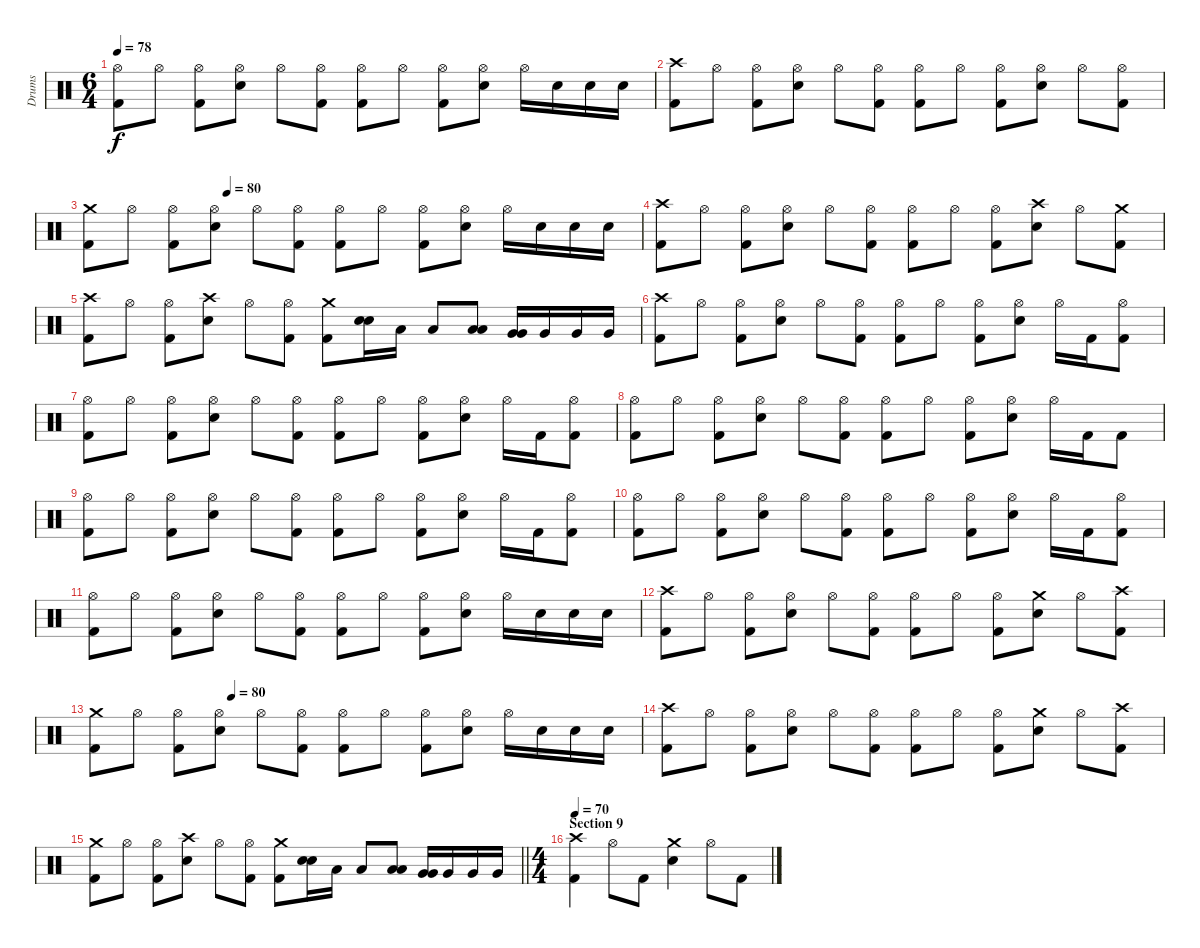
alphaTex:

\track ("Drums" "Drums") {instrument percussion}
\staff {score}
\articulation defaults
\ts (6 4)
\tempo 78
\clef neutral
\ks c
("Hi-Hat (open)" "Kick (hit) 2").8{dy f} "Hi-Hat (open)".8 ("Hi-Hat (open)" "Kick (hit) 2").8 ("Hi-Hat (open)" "Electric Snare (hit)").8 "Hi-Hat (open)".8 ("Hi-Hat (open)" "Kick (hit) 2").8 ("Hi-Hat (open)" "Kick (hit) 2").8 "Hi-Hat (open)".8 ("Hi-Hat (open)" "Kick (hit) 2").8 ("Hi-Hat (open)" "Electric Snare (hit)").8 "Hi-Hat (open)".16 "Electric Snare (hit)".16 "Electric Snare (hit)".16 "Electric Snare (hit)".16 |
("Crash high (hit)" "Kick (hit) 2").8 "Hi-Hat (open)".8 ("Hi-Hat (open)" "Kick (hit) 2").8 ("Hi-Hat (open)" "Electric Snare (hit)").8 "Hi-Hat (open)".8 ("Hi-Hat (open)" "Kick (hit) 2").8 ("Hi-Hat (open)" "Kick (hit) 2").8 "Hi-Hat (open)".8 ("Hi-Hat (open)" "Kick (hit) 2").8 ("Hi-Hat (open)" "Electric Snare (hit)").8 "Hi-Hat (open)".8 ("Hi-Hat (open)" "Kick (hit) 2").8 |
\tempo (80 0.25)
("Crash medium (hit)" "Kick (hit) 2").8 "Hi-Hat (open)".8 ("Hi-Hat (open)" "Kick (hit) 2").8 ("Hi-Hat (open)" "Electric Snare (hit)").8 "Hi-Hat (open)".8 ("Hi-Hat (open)" "Kick (hit) 2").8 ("Hi-Hat (open)" "Kick (hit) 2").8 "Hi-Hat (open)".8 ("Hi-Hat (open)" "Kick (hit) 2").8 ("Hi-Hat (open)" "Electric Snare (hit)").8 "Hi-Hat (open)".16 "Electric Snare (hit)".16 "Electric Snare (hit)".16 "Electric Snare (hit)".16 |
("Crash high (hit)" "Kick (hit) 2").8 "Hi-Hat (open)".8 ("Hi-Hat (open)" "Kick (hit) 2").8 ("Hi-Hat (open)" "Electric Snare (hit)").8 "Hi-Hat (open)".8 ("Hi-Hat (open)" "Kick (hit) 2").8 ("Hi-Hat (open)" "Kick (hit) 2").8 "Hi-Hat (open)".8 ("Hi-Hat (open)" "Kick (hit) 2").8 ("Crash high (hit)" "Electric Snare (hit)").8 "Hi-Hat (open)".8 ("Crash medium (hit)" "Kick (hit) 2").8 |
("Crash high (hit)" "Kick (hit) 2").8 "Hi-Hat (open)".8 ("Hi-Hat (open)" "Kick (hit) 2").8 ("Crash high (hit)" "Electric Snare (hit)").8 "Hi-Hat (open)".8 ("Hi-Hat (open)" "Kick (hit) 2").8 ("Crash medium (hit)" "Kick (hit) 2").8 ("Electric Snare (hit)" "Electric Snare (hit)").16{bu 60} "Low Tom (hit)".16 "Low Tom (hit)".8 ("Low Tom (hit)" "Low Tom (hit)").8{bu 60} ("Very Low Tom (hit)" "Very Low Tom (hit)").16{bu 60} "Very Low Tom (hit)".16 "Very Low Tom (hit)".16 "Very Low Tom (hit)".16 |
("Crash high (hit)" "Kick (hit) 2").8 "Hi-Hat (open)".8 ("Hi-Hat (open)" "Kick (hit) 2").8 ("Hi-Hat (open)" "Electric Snare (hit)").8 "Hi-Hat (open)".8 ("Hi-Hat (open)" "Kick (hit) 2").8 ("Hi-Hat (open)" "Kick (hit) 2").8 "Hi-Hat (open)".8 ("Hi-Hat (open)" "Kick (hit) 2").8 ("Hi-Hat (open)" "Electric Snare (hit)").8 "Hi-Hat (open)".16 "Kick (hit) 2".16 ("Hi-Hat (open)" "Kick (hit) 2").8 |
("Hi-Hat (open)" "Kick (hit) 2").8 "Hi-Hat (open)".8 ("Hi-Hat (open)" "Kick (hit) 2").8 ("Hi-Hat (open)" "Electric Snare (hit)").8 "Hi-Hat (open)".8 ("Hi-Hat (open)" "Kick (hit) 2").8 ("Hi-Hat (open)" "Kick (hit) 2").8 "Hi-Hat (open)".8 ("Hi-Hat (open)" "Kick (hit) 2").8 ("Hi-Hat (open)" "Electric Snare (hit)").8 "Hi-Hat (open)".16 "Kick (hit) 2".16 ("Hi-Hat (open)" "Kick (hit) 2").8 |
("Hi-Hat (open)" "Kick (hit) 2").8 "Hi-Hat (open)".8 ("Hi-Hat (open)" "Kick (hit) 2").8 ("Hi-Hat (open)" "Electric Snare (hit)").8 "Hi-Hat (open)".8 ("Hi-Hat (open)" "Kick (hit) 2").8 ("Hi-Hat (open)" "Kick (hit) 2").8 "Hi-Hat (open)".8 ("Hi-Hat (open)" "Kick (hit) 2").8 ("Hi-Hat (open)" "Electric Snare (hit)").8 "Hi-Hat (open)".16 "Kick (hit) 2".16 "Kick (hit) 2".8 |
("Hi-Hat (open)" "Kick (hit) 2").8 "Hi-Hat (open)".8 ("Hi-Hat (open)" "Kick (hit) 2").8 ("Hi-Hat (open)" "Electric Snare (hit)").8 "Hi-Hat (open)".8 ("Hi-Hat (open)" "Kick (hit) 2").8 ("Hi-Hat (open)" "Kick (hit) 2").8 "Hi-Hat (open)".8 ("Hi-Hat (open)" "Kick (hit) 2").8 ("Hi-Hat (open)" "Electric Snare (hit)").8 "Hi-Hat (open)".16 "Kick (hit) 2".16 ("Hi-Hat (open)" "Kick (hit) 2").8 |
("Hi-Hat (open)" "Kick (hit) 2").8 "Hi-Hat (open)".8 ("Hi-Hat (open)" "Kick (hit) 2").8 ("Hi-Hat (open)" "Electric Snare (hit)").8 "Hi-Hat (open)".8 ("Hi-Hat (open)" "Kick (hit) 2").8 ("Hi-Hat (open)" "Kick (hit) 2").8 "Hi-Hat (open)".8 ("Hi-Hat (open)" "Kick (hit) 2").8 ("Hi-Hat (open)" "Electric Snare (hit)").8 "Hi-Hat (open)".16 "Kick (hit) 2".16 ("Hi-Hat (open)" "Kick (hit) 2").8 |
("Hi-Hat (open)" "Kick (hit) 2").8 "Hi-Hat (open)".8 ("Hi-Hat (open)" "Kick (hit) 2").8 ("Hi-Hat (open)" "Electric Snare (hit)").8 "Hi-Hat (open)".8 ("Hi-Hat (open)" "Kick (hit) 2").8 ("Hi-Hat (open)" "Kick (hit) 2").8 "Hi-Hat (open)".8 ("Hi-Hat (open)" "Kick (hit) 2").8 ("Hi-Hat (open)" "Electric Snare (hit)").8 "Hi-Hat (open)".16 "Electric Snare (hit)".16 "Electric Snare (hit)".16 "Electric Snare (hit)".16 |
("Crash high (hit)" "Kick (hit) 2").8 "Hi-Hat (open)".8 ("Hi-Hat (open)" "Kick (hit) 2").8 ("Hi-Hat (open)" "Electric Snare (hit)").8 "Hi-Hat (open)".8 ("Hi-Hat (open)" "Kick (hit) 2").8 ("Hi-Hat (open)" "Kick (hit) 2").8 "Hi-Hat (open)".8 ("Hi-Hat (open)" "Kick (hit) 2").8 ("Crash medium (hit)" "Electric Snare (hit)").8 "Hi-Hat (open)".8 ("Crash high (hit)" "Kick (hit) 2").8 |
\tempo (80 0.25)
("Crash medium (hit)" "Kick (hit) 2").8 "Hi-Hat (open)".8 ("Hi-Hat (open)" "Kick (hit) 2").8 ("Hi-Hat (open)" "Electric Snare (hit)").8 "Hi-Hat (open)".8 ("Hi-Hat (open)" "Kick (hit) 2").8 ("Hi-Hat (open)" "Kick (hit) 2").8 "Hi-Hat (open)".8 ("Hi-Hat (open)" "Kick (hit) 2").8 ("Hi-Hat (open)" "Electric Snare (hit)").8 "Hi-Hat (open)".16 "Electric Snare (hit)".16 "Electric Snare (hit)".16 "Electric Snare (hit)".16 |
("Crash high (hit)" "Kick (hit) 2").8 "Hi-Hat (open)".8 ("Hi-Hat (open)" "Kick (hit) 2").8 ("Hi-Hat (open)" "Electric Snare (hit)").8 "Hi-Hat (open)".8 ("Hi-Hat (open)" "Kick (hit) 2").8 ("Hi-Hat (open)" "Kick (hit) 2").8 "Hi-Hat (open)".8 ("Hi-Hat (open)" "Kick (hit) 2").8 ("Crash medium (hit)" "Electric Snare (hit)").8 "Hi-Hat (open)".8 ("Crash high (hit)" "Kick (hit) 2").8 |
\barLineRight lightlight
("Crash medium (hit)" "Kick (hit) 2").8 "Hi-Hat (open)".8 ("Hi-Hat (open)" "Kick (hit) 2").8 ("Crash high (hit)" "Electric Snare (hit)").8 "Hi-Hat (open)".8 ("Hi-Hat (open)" "Kick (hit) 2").8 ("Crash medium (hit)" "Kick (hit) 2").8 ("Electric Snare (hit)" "Electric Snare (hit)").16{bu 60} "Low Tom (hit)".16 "Low Tom (hit)".8 ("Low Tom (hit)" "Low Tom (hit)").8{bu 60} ("Very Low Tom (hit)" "Very Low Tom (hit)").16{bu 60} "Very Low Tom (hit)".16 "Very Low Tom (hit)".16 "Very Low Tom (hit)".16 |
\ts (4 4)
\section ("" "Section 9")
\tempo 70
("Crash high (hit)" "Kick (hit) 2").4 "Hi-Hat (open)".8 "Kick (hit) 2".8 ("Crash medium (hit)" "Electric Snare (hit)").4 "Hi-Hat (open)".8 "Kick (hit) 2".8
